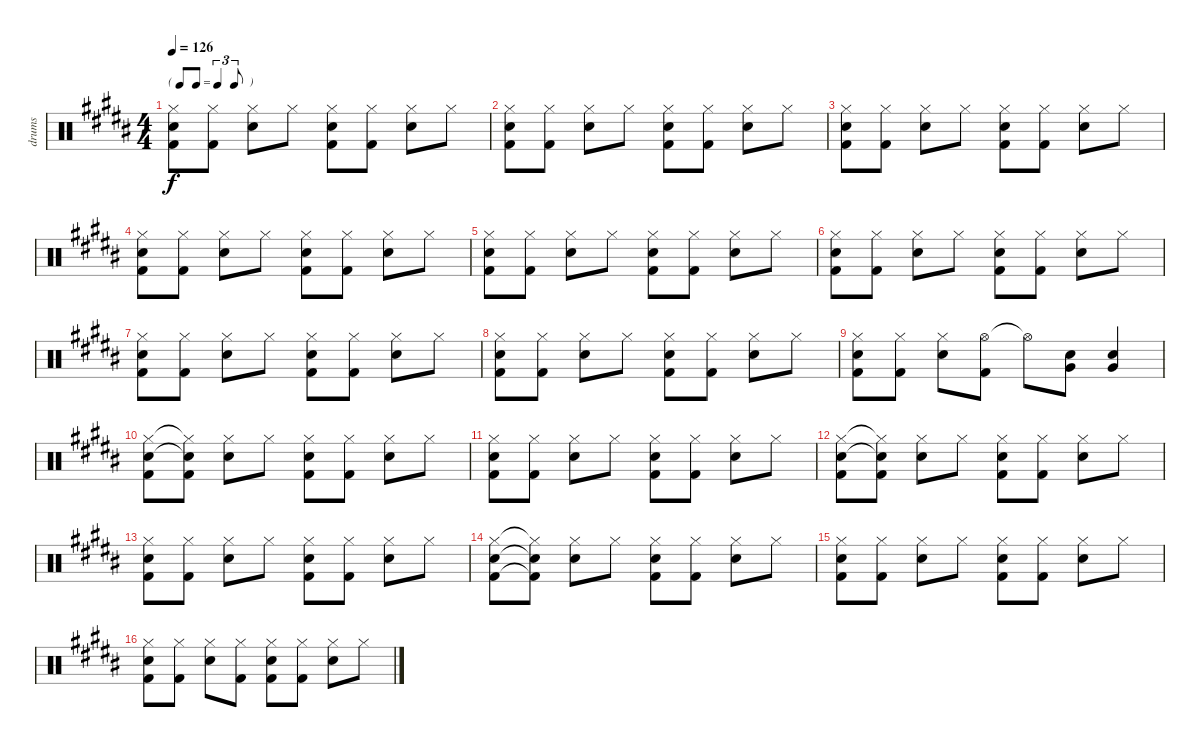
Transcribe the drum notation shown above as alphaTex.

\track ("drums" "drums") {instrument percussion}
\staff {score}
\articulation defaults
\ts (4 4)
\tf triplet8th
\tempo 126
\clef neutral
\ks b
("Hi-Hat (closed)" "Electric Snare (hit)" "Kick (hit) 2").8{dy f} ("Hi-Hat (closed)" "Kick (hit) 2").8 ("Hi-Hat (closed)" "Electric Snare (hit)").8 "Hi-Hat (closed)".8 ("Hi-Hat (closed)" "Electric Snare (hit)" "Kick (hit) 2").8 ("Hi-Hat (closed)" "Kick (hit) 2").8 ("Hi-Hat (closed)" "Electric Snare (hit)").8 "Hi-Hat (closed)".8 |
("Hi-Hat (closed)" "Electric Snare (hit)" "Kick (hit) 2").8 ("Hi-Hat (closed)" "Kick (hit) 2").8 ("Hi-Hat (closed)" "Electric Snare (hit)").8 "Hi-Hat (closed)".8 ("Hi-Hat (closed)" "Electric Snare (hit)" "Kick (hit) 2").8 ("Hi-Hat (closed)" "Kick (hit) 2").8 ("Hi-Hat (closed)" "Electric Snare (hit)").8 "Hi-Hat (closed)".8 |
("Hi-Hat (closed)" "Electric Snare (hit)" "Kick (hit) 2").8 ("Hi-Hat (closed)" "Kick (hit) 2").8 ("Hi-Hat (closed)" "Electric Snare (hit)").8 "Hi-Hat (closed)".8 ("Hi-Hat (closed)" "Electric Snare (hit)" "Kick (hit) 2").8 ("Hi-Hat (closed)" "Kick (hit) 2").8 ("Hi-Hat (closed)" "Electric Snare (hit)").8 "Hi-Hat (closed)".8 |
("Hi-Hat (closed)" "Electric Snare (hit)" "Kick (hit) 2").8 ("Hi-Hat (closed)" "Kick (hit) 2").8 ("Hi-Hat (closed)" "Electric Snare (hit)").8 "Hi-Hat (closed)".8 ("Hi-Hat (closed)" "Electric Snare (hit)" "Kick (hit) 2").8 ("Hi-Hat (closed)" "Kick (hit) 2").8 ("Hi-Hat (closed)" "Electric Snare (hit)").8 "Hi-Hat (closed)".8 |
("Hi-Hat (closed)" "Electric Snare (hit)" "Kick (hit) 2").8 ("Hi-Hat (closed)" "Kick (hit) 2").8 ("Hi-Hat (closed)" "Electric Snare (hit)").8 "Hi-Hat (closed)".8 ("Hi-Hat (closed)" "Electric Snare (hit)" "Kick (hit) 2").8 ("Hi-Hat (closed)" "Kick (hit) 2").8 ("Hi-Hat (closed)" "Electric Snare (hit)").8 "Hi-Hat (closed)".8 |
("Hi-Hat (closed)" "Electric Snare (hit)" "Kick (hit) 2").8 ("Hi-Hat (closed)" "Kick (hit) 2").8 ("Hi-Hat (closed)" "Electric Snare (hit)").8 "Hi-Hat (closed)".8 ("Hi-Hat (closed)" "Electric Snare (hit)" "Kick (hit) 2").8 ("Hi-Hat (closed)" "Kick (hit) 2").8 ("Hi-Hat (closed)" "Electric Snare (hit)").8 "Hi-Hat (closed)".8 |
("Hi-Hat (closed)" "Electric Snare (hit)" "Kick (hit) 2").8 ("Hi-Hat (closed)" "Kick (hit) 2").8 ("Hi-Hat (closed)" "Electric Snare (hit)").8 "Hi-Hat (closed)".8 ("Hi-Hat (closed)" "Electric Snare (hit)" "Kick (hit) 2").8 ("Hi-Hat (closed)" "Kick (hit) 2").8 ("Hi-Hat (closed)" "Electric Snare (hit)").8 "Hi-Hat (closed)".8 |
("Hi-Hat (closed)" "Electric Snare (hit)" "Kick (hit) 2").8 ("Hi-Hat (closed)" "Kick (hit) 2").8 ("Hi-Hat (closed)" "Electric Snare (hit)").8 "Hi-Hat (closed)".8 ("Hi-Hat (closed)" "Electric Snare (hit)" "Kick (hit) 2").8 ("Hi-Hat (closed)" "Kick (hit) 2").8 ("Hi-Hat (closed)" "Electric Snare (hit)").8 "Hi-Hat (closed)".8 |
("Hi-Hat (closed)" "Electric Snare (hit)" "Kick (hit) 2").8 ("Hi-Hat (closed)" "Kick (hit) 2").8 ("Hi-Hat (closed)" "Electric Snare (hit)").8 ("Hi-Hat (open)" "Kick (hit) 2").8 "Hi-Hat (open)"{t}.8 ("Electric Snare (hit)" "Very Low Tom (hit)").8 ("Electric Snare (hit)" "Very Low Tom (hit)").4 |
("Hi-Hat (closed)" "Electric Snare (hit)" "Kick (hit) 2").8{volume 15} ("Hi-Hat (closed)"{t} "Snare (hit)"{t} "Kick (hit) 2").8 ("Hi-Hat (closed)" "Electric Snare (hit)").8 "Hi-Hat (closed)".8 ("Hi-Hat (closed)" "Electric Snare (hit)" "Kick (hit) 2").8 ("Hi-Hat (closed)" "Kick (hit) 2").8 ("Hi-Hat (closed)" "Electric Snare (hit)").8 "Hi-Hat (closed)".8 |
("Hi-Hat (closed)" "Electric Snare (hit)" "Kick (hit) 2").8 ("Hi-Hat (closed)" "Kick (hit) 2").8 ("Hi-Hat (closed)" "Electric Snare (hit)").8 "Hi-Hat (closed)".8 ("Hi-Hat (closed)" "Electric Snare (hit)" "Kick (hit) 2").8 ("Hi-Hat (closed)" "Kick (hit) 2").8 ("Hi-Hat (closed)" "Electric Snare (hit)").8 "Hi-Hat (closed)".8 |
("Hi-Hat (closed)" "Electric Snare (hit)" "Kick (hit) 2").8 ("Hi-Hat (closed)"{t} "Snare (hit)"{t} "Kick (hit) 2").8 ("Hi-Hat (closed)" "Electric Snare (hit)").8 "Hi-Hat (closed)".8 ("Hi-Hat (closed)" "Electric Snare (hit)" "Kick (hit) 2").8 ("Hi-Hat (closed)" "Kick (hit) 2").8 ("Hi-Hat (closed)" "Electric Snare (hit)").8 "Hi-Hat (closed)".8 |
("Hi-Hat (closed)" "Electric Snare (hit)" "Kick (hit) 2").8 ("Hi-Hat (closed)" "Kick (hit) 2").8 ("Hi-Hat (closed)" "Electric Snare (hit)").8 "Hi-Hat (closed)".8 ("Hi-Hat (closed)" "Electric Snare (hit)" "Kick (hit) 2").8 ("Hi-Hat (closed)" "Kick (hit) 2").8 ("Hi-Hat (closed)" "Electric Snare (hit)").8 "Hi-Hat (closed)".8 |
("Hi-Hat (closed)" "Electric Snare (hit)" "Kick (hit) 2").8 ("Hi-Hat (closed)"{t} "Snare (hit)"{t} "Kick (hit) 2"{t}).8 ("Hi-Hat (closed)" "Electric Snare (hit)").8 "Hi-Hat (closed)".8 ("Hi-Hat (closed)" "Electric Snare (hit)" "Kick (hit) 2").8 ("Hi-Hat (closed)" "Kick (hit) 2").8 ("Hi-Hat (closed)" "Electric Snare (hit)").8 "Hi-Hat (closed)".8 |
("Hi-Hat (closed)" "Electric Snare (hit)" "Kick (hit) 2").8 ("Hi-Hat (closed)" "Kick (hit) 2").8 ("Hi-Hat (closed)" "Electric Snare (hit)").8 "Hi-Hat (closed)".8 ("Hi-Hat (closed)" "Electric Snare (hit)" "Kick (hit) 2").8 ("Hi-Hat (closed)" "Kick (hit) 2").8 ("Hi-Hat (closed)" "Electric Snare (hit)").8 "Hi-Hat (closed)".8 |
("Hi-Hat (closed)" "Electric Snare (hit)" "Kick (hit) 2").8 ("Hi-Hat (closed)" "Kick (hit) 2").8 ("Hi-Hat (closed)" "Electric Snare (hit)").8 ("Hi-Hat (closed)" "Kick (hit) 2").8 ("Hi-Hat (closed)" "Electric Snare (hit)" "Kick (hit) 2").8 ("Hi-Hat (closed)" "Kick (hit) 2").8 ("Hi-Hat (closed)" "Electric Snare (hit)").8 "Hi-Hat (closed)".8
